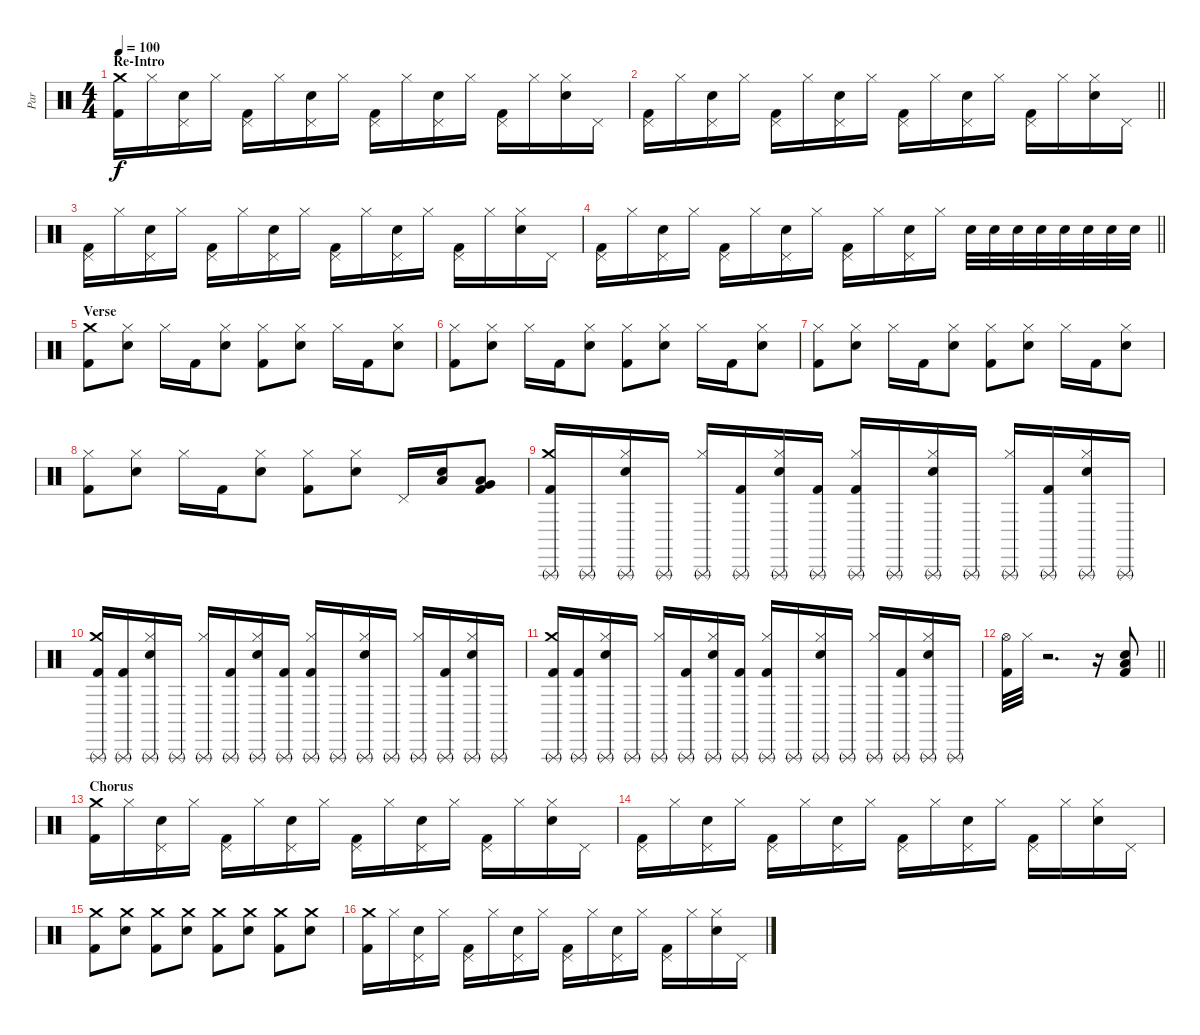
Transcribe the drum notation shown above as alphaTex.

\track ("Par" "Par") {instrument percussion}
\staff {score}
\articulation defaults
\ts (4 4)
\section ("" "Re-Intro")
\tempo 100
\clef neutral
\ks c
("Crash medium (hit)" "Kick (hit) 2").16{dy f} "Hi-Hat (closed)".16 ("Pedal Hi-Hat (hit)" "Snare (hit) 2").16 "Hi-Hat (closed)".16 ("Pedal Hi-Hat (hit)" "Kick (hit) 2").16 "Hi-Hat (closed)".16 ("Pedal Hi-Hat (hit)" "Snare (hit) 2").16 "Hi-Hat (closed)".16 ("Pedal Hi-Hat (hit)" "Kick (hit) 2").16 "Hi-Hat (closed)".16 ("Pedal Hi-Hat (hit)" "Snare (hit) 2").16 "Hi-Hat (closed)".16 ("Pedal Hi-Hat (hit)" "Kick (hit) 2").16 "Hi-Hat (closed)".16 ("Hi-Hat (closed)" "Snare (hit) 2").16 "Pedal Hi-Hat (hit)".16 |
\barLineRight lightlight
("Pedal Hi-Hat (hit)" "Kick (hit) 2").16 "Hi-Hat (closed)".16 ("Pedal Hi-Hat (hit)" "Snare (hit) 2").16 "Hi-Hat (closed)".16 ("Pedal Hi-Hat (hit)" "Kick (hit) 2").16 "Hi-Hat (closed)".16 ("Pedal Hi-Hat (hit)" "Snare (hit) 2").16 "Hi-Hat (closed)".16 ("Pedal Hi-Hat (hit)" "Kick (hit) 2").16 "Hi-Hat (closed)".16 ("Pedal Hi-Hat (hit)" "Snare (hit) 2").16 "Hi-Hat (closed)".16 ("Pedal Hi-Hat (hit)" "Kick (hit) 2").16 "Hi-Hat (closed)".16 ("Hi-Hat (closed)" "Snare (hit) 2").16 "Pedal Hi-Hat (hit)".16 |
("Pedal Hi-Hat (hit)" "Kick (hit) 2").16 "Hi-Hat (closed)".16 ("Pedal Hi-Hat (hit)" "Snare (hit) 2").16 "Hi-Hat (closed)".16 ("Pedal Hi-Hat (hit)" "Kick (hit) 2").16 "Hi-Hat (closed)".16 ("Pedal Hi-Hat (hit)" "Snare (hit) 2").16 "Hi-Hat (closed)".16 ("Pedal Hi-Hat (hit)" "Kick (hit) 2").16 "Hi-Hat (closed)".16 ("Pedal Hi-Hat (hit)" "Snare (hit) 2").16 "Hi-Hat (closed)".16 ("Pedal Hi-Hat (hit)" "Kick (hit) 2").16 "Hi-Hat (closed)".16 ("Hi-Hat (closed)" "Snare (hit) 2").16 "Pedal Hi-Hat (hit)".16 |
\barLineRight lightlight
("Pedal Hi-Hat (hit)" "Kick (hit) 2").16 "Hi-Hat (closed)".16 ("Pedal Hi-Hat (hit)" "Snare (hit) 2").16 "Hi-Hat (closed)".16 ("Pedal Hi-Hat (hit)" "Kick (hit) 2").16 "Hi-Hat (closed)".16 ("Pedal Hi-Hat (hit)" "Snare (hit) 2").16 "Hi-Hat (closed)".16 ("Pedal Hi-Hat (hit)" "Kick (hit) 2").16 "Hi-Hat (closed)".16 ("Pedal Hi-Hat (hit)" "Snare (hit) 2").16 "Hi-Hat (closed)".16 "Snare (hit) 2".32 "Snare (hit) 2".32 "Snare (hit) 2".32 "Snare (hit) 2".32 "Snare (hit) 2".32 "Snare (hit) 2".32 "Snare (hit) 2".32 "Snare (hit) 2".32 |
\section ("" "Verse")
("Crash medium (hit)" "Kick (hit) 2").8 ("Hi-Hat (closed)" "Snare (hit) 2").8 "Hi-Hat (closed)".16 "Kick (hit) 2".16 ("Hi-Hat (closed)" "Snare (hit) 2").8 ("Hi-Hat (closed)" "Kick (hit) 2").8 ("Hi-Hat (closed)" "Snare (hit) 2").8 "Hi-Hat (closed)".16 "Kick (hit) 2".16 ("Hi-Hat (closed)" "Snare (hit) 2").8 |
("Hi-Hat (closed)" "Kick (hit) 2").8 ("Hi-Hat (closed)" "Snare (hit) 2").8 "Hi-Hat (closed)".16 "Kick (hit) 2".16 ("Hi-Hat (closed)" "Snare (hit) 2").8 ("Hi-Hat (closed)" "Kick (hit) 2").8 ("Hi-Hat (closed)" "Snare (hit) 2").8 "Hi-Hat (closed)".16 "Kick (hit) 2".16 ("Hi-Hat (closed)" "Snare (hit) 2").8 |
("Hi-Hat (closed)" "Kick (hit) 2").8 ("Hi-Hat (closed)" "Snare (hit) 2").8 "Hi-Hat (closed)".16 "Kick (hit) 2".16 ("Hi-Hat (closed)" "Snare (hit) 2").8 ("Hi-Hat (closed)" "Kick (hit) 2").8 ("Hi-Hat (closed)" "Snare (hit) 2").8 "Hi-Hat (closed)".16 "Kick (hit) 2".16 ("Hi-Hat (closed)" "Snare (hit) 2").8 |
("Hi-Hat (closed)" "Kick (hit) 2").8 ("Hi-Hat (closed)" "Snare (hit) 2").8 "Hi-Hat (closed)".16 "Kick (hit) 2".16 ("Hi-Hat (closed)" "Snare (hit) 2").8 ("Hi-Hat (closed)" "Kick (hit) 2").8 ("Hi-Hat (closed)" "Snare (hit) 2").8 "Pedal Hi-Hat (hit)".16 ("Snare (hit) 2" "Low Floor Tom (hit)").16 ("Very Low Tom (hit)" "Low Floor Tom (hit)" "Kick (hit) 2").8 |
("Crash medium (hit)" "Triangle (rnute)" "Kick (hit) 2").16 "Triangle (rnute)".16 ("Hi-Hat (closed)" "Triangle (rnute)" "Snare (hit) 2").16 "Triangle (rnute)".16 ("Hi-Hat (closed)" "Triangle (rnute)").16 ("Triangle (rnute)" "Kick (hit) 2").16 ("Hi-Hat (closed)" "Triangle (rnute)" "Snare (hit) 2").16 ("Triangle (rnute)" "Kick (hit) 2").16 ("Hi-Hat (closed)" "Triangle (rnute)" "Kick (hit) 2").16 "Triangle (rnute)".16 ("Hi-Hat (closed)" "Triangle (rnute)" "Snare (hit) 2").16 "Triangle (rnute)".16 ("Hi-Hat (closed)" "Triangle (rnute)").16 ("Triangle (rnute)" "Kick (hit) 2").16 ("Hi-Hat (closed)" "Triangle (rnute)" "Snare (hit) 2").16 "Triangle (rnute)".16 |
("Crash medium (hit)" "Triangle (rnute)" "Kick (hit) 2").16 ("Triangle (rnute)" "Kick (hit) 2").16 ("Hi-Hat (closed)" "Triangle (rnute)" "Snare (hit) 2").16 "Triangle (rnute)".16 ("Hi-Hat (closed)" "Triangle (rnute)").16 ("Triangle (rnute)" "Kick (hit) 2").16 ("Hi-Hat (closed)" "Triangle (rnute)" "Snare (hit) 2").16 ("Triangle (rnute)" "Kick (hit) 2").16 ("Hi-Hat (closed)" "Triangle (rnute)" "Kick (hit) 2").16 "Triangle (rnute)".16 ("Hi-Hat (closed)" "Triangle (rnute)" "Snare (hit) 2").16 "Triangle (rnute)".16 ("Hi-Hat (closed)" "Triangle (rnute)").16 ("Triangle (rnute)" "Kick (hit) 2").16 ("Hi-Hat (closed)" "Triangle (rnute)" "Snare (hit) 2").16 "Triangle (rnute)".16 |
("Crash medium (hit)" "Triangle (rnute)" "Kick (hit) 2").16 ("Triangle (rnute)" "Kick (hit) 2").16 ("Hi-Hat (closed)" "Triangle (rnute)" "Snare (hit) 2").16 "Triangle (rnute)".16 ("Hi-Hat (closed)" "Triangle (rnute)").16 ("Triangle (rnute)" "Kick (hit) 2").16 ("Hi-Hat (closed)" "Triangle (rnute)" "Snare (hit) 2").16 ("Triangle (rnute)" "Kick (hit) 2").16 ("Hi-Hat (closed)" "Triangle (rnute)" "Kick (hit) 2").16 "Triangle (rnute)".16 ("Hi-Hat (closed)" "Triangle (rnute)" "Snare (hit) 2").16 "Triangle (rnute)".16 ("Hi-Hat (closed)" "Triangle (rnute)").16 ("Triangle (rnute)" "Kick (hit) 2").16 ("Hi-Hat (closed)" "Triangle (rnute)" "Snare (hit) 2").16 "Triangle (rnute)".16 |
\barLineRight lightlight
("Hi-Hat (open)" "Kick (hit) 2").32 "Hi-Hat (closed)".32 r.2{d} r.16 ("Low Floor Tom (hit)" "Snare (hit) 2" "Kick (hit) 2").8 |
\section ("" "Chorus")
("Crash medium (hit)" "Kick (hit) 2").16 "Hi-Hat (closed)".16 ("Pedal Hi-Hat (hit)" "Snare (hit) 2").16 "Hi-Hat (closed)".16 ("Pedal Hi-Hat (hit)" "Kick (hit) 2").16 "Hi-Hat (closed)".16 ("Pedal Hi-Hat (hit)" "Snare (hit) 2").16 "Hi-Hat (closed)".16 ("Pedal Hi-Hat (hit)" "Kick (hit) 2").16 "Hi-Hat (closed)".16 ("Pedal Hi-Hat (hit)" "Snare (hit) 2").16 "Hi-Hat (closed)".16 ("Pedal Hi-Hat (hit)" "Kick (hit) 2").16 "Hi-Hat (closed)".16 ("Hi-Hat (closed)" "Snare (hit) 2").16 "Pedal Hi-Hat (hit)".16 |
("Pedal Hi-Hat (hit)" "Kick (hit) 2").16 "Hi-Hat (closed)".16 ("Pedal Hi-Hat (hit)" "Snare (hit) 2").16 "Hi-Hat (closed)".16 ("Pedal Hi-Hat (hit)" "Kick (hit) 2").16 "Hi-Hat (closed)".16 ("Pedal Hi-Hat (hit)" "Snare (hit) 2").16 "Hi-Hat (closed)".16 ("Pedal Hi-Hat (hit)" "Kick (hit) 2").16 "Hi-Hat (closed)".16 ("Pedal Hi-Hat (hit)" "Snare (hit) 2").16 "Hi-Hat (closed)".16 ("Pedal Hi-Hat (hit)" "Kick (hit) 2").16 "Hi-Hat (closed)".16 ("Hi-Hat (closed)" "Snare (hit) 2").16 "Pedal Hi-Hat (hit)".16 |
("Crash medium (hit)" "Kick (hit) 2").8 ("Crash medium (hit)" "Snare (hit) 2").8 ("Crash medium (hit)" "Kick (hit) 2").8 ("Crash medium (hit)" "Snare (hit) 2").8 ("Crash medium (hit)" "Kick (hit) 2").8 ("Crash medium (hit)" "Snare (hit) 2").8 ("Crash medium (hit)" "Kick (hit) 2").8 ("Crash medium (hit)" "Snare (hit) 2").8 |
("Crash medium (hit)" "Kick (hit) 2").16 "Hi-Hat (closed)".16 ("Pedal Hi-Hat (hit)" "Snare (hit) 2").16 "Hi-Hat (closed)".16 ("Pedal Hi-Hat (hit)" "Kick (hit) 2").16 "Hi-Hat (closed)".16 ("Pedal Hi-Hat (hit)" "Snare (hit) 2").16 "Hi-Hat (closed)".16 ("Pedal Hi-Hat (hit)" "Kick (hit) 2").16 "Hi-Hat (closed)".16 ("Pedal Hi-Hat (hit)" "Snare (hit) 2").16 "Hi-Hat (closed)".16 ("Pedal Hi-Hat (hit)" "Kick (hit) 2").16 "Hi-Hat (closed)".16 ("Hi-Hat (closed)" "Snare (hit) 2").16 "Pedal Hi-Hat (hit)".16
